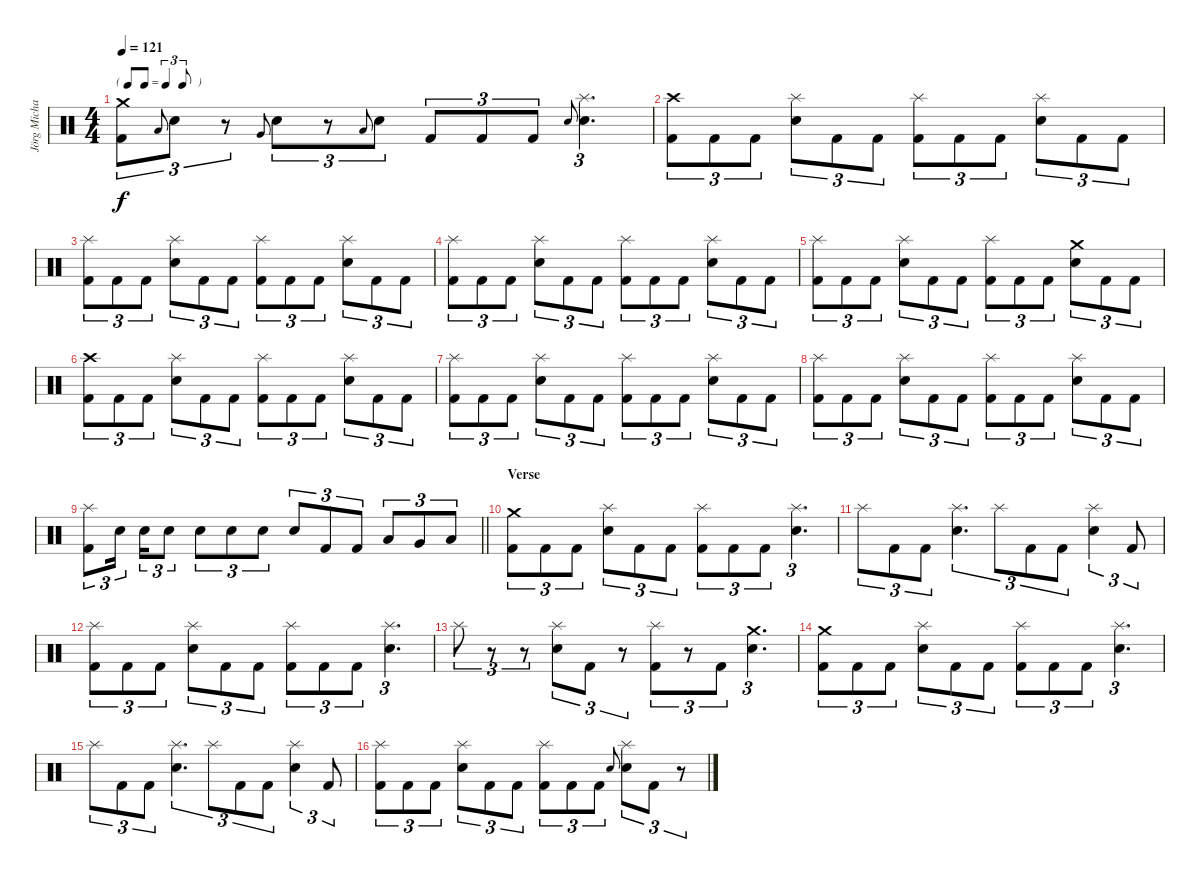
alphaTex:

\track ("Jörg Michael" "Jörg Micha") {instrument percussion}
\staff {score}
\articulation defaults
\ts (4 4)
\tf triplet8th
\tempo 121
\clef neutral
\ks c
("Crash medium (hit)" "Kick (hit) 2").8{tu (3 2) dy f} "Low Tom (hit)".8{gr onbeat} "Snare (hit) 2".8{tu (3 2)} r.8{tu (3 2)} "Very Low Tom (hit)".8{gr onbeat} "Snare (hit) 2".8{tu (3 2)} r.8{tu (3 2)} "Low Floor Tom (hit)".8{gr onbeat} "Snare (hit) 2".8{tu (3 2)} "Kick (hit) 2".8{tu (3 2)} "Kick (hit) 2".8{tu (3 2)} "Kick (hit) 2".8{tu (3 2)} "Snare (hit) 2".8{gr onbeat} ("Splash (hit)" "Snare (hit) 2").4{d tu (3 2)} |
("Crash high (hit)" "Kick (hit) 2").8{tu (3 2)} "Kick (hit) 2".8{tu (3 2)} "Kick (hit) 2".8{tu (3 2)} ("Splash (hit)" "Snare (hit) 2").8{tu (3 2)} "Kick (hit) 2".8{tu (3 2)} "Kick (hit) 2".8{tu (3 2)} ("Splash (hit)" "Kick (hit) 2").8{tu (3 2)} "Kick (hit) 2".8{tu (3 2)} "Kick (hit) 2".8{tu (3 2)} ("Splash (hit)" "Snare (hit) 2").8{tu (3 2)} "Kick (hit) 2".8{tu (3 2)} "Kick (hit) 2".8{tu (3 2)} |
("Splash (hit)" "Kick (hit) 2").8{tu (3 2)} "Kick (hit) 2".8{tu (3 2)} "Kick (hit) 2".8{tu (3 2)} ("Splash (hit)" "Snare (hit) 2").8{tu (3 2)} "Kick (hit) 2".8{tu (3 2)} "Kick (hit) 2".8{tu (3 2)} ("Splash (hit)" "Kick (hit) 2").8{tu (3 2)} "Kick (hit) 2".8{tu (3 2)} "Kick (hit) 2".8{tu (3 2)} ("Splash (hit)" "Snare (hit) 2").8{tu (3 2)} "Kick (hit) 2".8{tu (3 2)} "Kick (hit) 2".8{tu (3 2)} |
("Splash (hit)" "Kick (hit) 2").8{tu (3 2)} "Kick (hit) 2".8{tu (3 2)} "Kick (hit) 2".8{tu (3 2)} ("Splash (hit)" "Snare (hit) 2").8{tu (3 2)} "Kick (hit) 2".8{tu (3 2)} "Kick (hit) 2".8{tu (3 2)} ("Splash (hit)" "Kick (hit) 2").8{tu (3 2)} "Kick (hit) 2".8{tu (3 2)} "Kick (hit) 2".8{tu (3 2)} ("Splash (hit)" "Snare (hit) 2").8{tu (3 2)} "Kick (hit) 2".8{tu (3 2)} "Kick (hit) 2".8{tu (3 2)} |
("Splash (hit)" "Kick (hit) 2").8{tu (3 2)} "Kick (hit) 2".8{tu (3 2)} "Kick (hit) 2".8{tu (3 2)} ("Splash (hit)" "Snare (hit) 2").8{tu (3 2)} "Kick (hit) 2".8{tu (3 2)} "Kick (hit) 2".8{tu (3 2)} ("Splash (hit)" "Kick (hit) 2").8{tu (3 2)} "Kick (hit) 2".8{tu (3 2)} "Kick (hit) 2".8{tu (3 2)} ("Crash medium (hit)" "Snare (hit) 2").8{tu (3 2)} "Kick (hit) 2".8{tu (3 2)} "Kick (hit) 2".8{tu (3 2)} |
("Crash high (hit)" "Kick (hit) 2").8{tu (3 2)} "Kick (hit) 2".8{tu (3 2)} "Kick (hit) 2".8{tu (3 2)} ("Splash (hit)" "Snare (hit) 2").8{tu (3 2)} "Kick (hit) 2".8{tu (3 2)} "Kick (hit) 2".8{tu (3 2)} ("Splash (hit)" "Kick (hit) 2").8{tu (3 2)} "Kick (hit) 2".8{tu (3 2)} "Kick (hit) 2".8{tu (3 2)} ("Splash (hit)" "Snare (hit) 2").8{tu (3 2)} "Kick (hit) 2".8{tu (3 2)} "Kick (hit) 2".8{tu (3 2)} |
("Splash (hit)" "Kick (hit) 2").8{tu (3 2)} "Kick (hit) 2".8{tu (3 2)} "Kick (hit) 2".8{tu (3 2)} ("Splash (hit)" "Snare (hit) 2").8{tu (3 2)} "Kick (hit) 2".8{tu (3 2)} "Kick (hit) 2".8{tu (3 2)} ("Splash (hit)" "Kick (hit) 2").8{tu (3 2)} "Kick (hit) 2".8{tu (3 2)} "Kick (hit) 2".8{tu (3 2)} ("Splash (hit)" "Snare (hit) 2").8{tu (3 2)} "Kick (hit) 2".8{tu (3 2)} "Kick (hit) 2".8{tu (3 2)} |
("Splash (hit)" "Kick (hit) 2").8{tu (3 2)} "Kick (hit) 2".8{tu (3 2)} "Kick (hit) 2".8{tu (3 2)} ("Splash (hit)" "Snare (hit) 2").8{tu (3 2)} "Kick (hit) 2".8{tu (3 2)} "Kick (hit) 2".8{tu (3 2)} ("Splash (hit)" "Kick (hit) 2").8{tu (3 2)} "Kick (hit) 2".8{tu (3 2)} "Kick (hit) 2".8{tu (3 2)} ("Splash (hit)" "Snare (hit) 2").8{tu (3 2)} "Kick (hit) 2".8{tu (3 2)} "Kick (hit) 2".8{tu (3 2)} |
\barLineRight lightlight
("Splash (hit)" "Kick (hit) 2").8{tu (3 2)} "Snare (hit) 2".16{tu (3 2) beam splitsecondary} "Snare (hit) 2".16{tu (3 2)} "Snare (hit) 2".8{tu (3 2)} "Snare (hit) 2".8{tu (3 2)} "Snare (hit) 2".8{tu (3 2)} "Snare (hit) 2".8{tu (3 2)} "Snare (hit) 2".8{tu (3 2)} "Kick (hit) 2".8{tu (3 2)} "Kick (hit) 2".8{tu (3 2)} "Low Tom (hit)".8{tu (3 2)} "Very Low Tom (hit)".8{tu (3 2)} "Low Floor Tom (hit)".8{tu (3 2)} |
\section ("" "Verse")
("Crash medium (hit)" "Kick (hit) 2").8{tu (3 2)} "Kick (hit) 2".8{tu (3 2)} "Kick (hit) 2".8{tu (3 2)} ("Splash (hit)" "Snare (hit) 2").8{tu (3 2)} "Kick (hit) 2".8{tu (3 2)} "Kick (hit) 2".8{tu (3 2)} ("Splash (hit)" "Kick (hit) 2").8{tu (3 2)} "Kick (hit) 2".8{tu (3 2)} "Kick (hit) 2".8{tu (3 2)} ("Splash (hit)" "Snare (hit) 2").4{d tu (3 2)} |
"Splash (hit)".8{tu (3 2)} "Kick (hit) 2".8{tu (3 2)} "Kick (hit) 2".8{tu (3 2)} ("Splash (hit)" "Snare (hit) 2").4{d tu (3 2)} "Splash (hit)".8{tu (3 2)} "Kick (hit) 2".8{tu (3 2)} "Kick (hit) 2".8{tu (3 2)} ("Splash (hit)" "Snare (hit) 2").4{tu (3 2)} "Kick (hit) 2".8{tu (3 2)} |
("Splash (hit)" "Kick (hit) 2").8{tu (3 2)} "Kick (hit) 2".8{tu (3 2)} "Kick (hit) 2".8{tu (3 2)} ("Splash (hit)" "Snare (hit) 2").8{tu (3 2)} "Kick (hit) 2".8{tu (3 2)} "Kick (hit) 2".8{tu (3 2)} ("Splash (hit)" "Kick (hit) 2").8{tu (3 2)} "Kick (hit) 2".8{tu (3 2)} "Kick (hit) 2".8{tu (3 2)} ("Splash (hit)" "Snare (hit) 2").4{d tu (3 2)} |
"Splash (hit)".8{tu (3 2)} r.8{tu (3 2)} r.8{tu (3 2)} ("Splash (hit)" "Snare (hit) 2").8{tu (3 2)} "Kick (hit) 2".8{tu (3 2)} r.8{tu (3 2)} ("Splash (hit)" "Kick (hit) 2").8{tu (3 2)} r.8{tu (3 2)} "Kick (hit) 2".8{tu (3 2)} ("Crash medium (hit)" "Snare (hit) 2").4{d tu (3 2)} |
("Crash medium (hit)" "Kick (hit) 2").8{tu (3 2)} "Kick (hit) 2".8{tu (3 2)} "Kick (hit) 2".8{tu (3 2)} ("Splash (hit)" "Snare (hit) 2").8{tu (3 2)} "Kick (hit) 2".8{tu (3 2)} "Kick (hit) 2".8{tu (3 2)} ("Splash (hit)" "Kick (hit) 2").8{tu (3 2)} "Kick (hit) 2".8{tu (3 2)} "Kick (hit) 2".8{tu (3 2)} ("Splash (hit)" "Snare (hit) 2").4{d tu (3 2)} |
"Splash (hit)".8{tu (3 2)} "Kick (hit) 2".8{tu (3 2)} "Kick (hit) 2".8{tu (3 2)} ("Splash (hit)" "Snare (hit) 2").4{d tu (3 2)} "Splash (hit)".8{tu (3 2)} "Kick (hit) 2".8{tu (3 2)} "Kick (hit) 2".8{tu (3 2)} ("Splash (hit)" "Snare (hit) 2").4{tu (3 2)} "Kick (hit) 2".8{tu (3 2)} |
("Splash (hit)" "Kick (hit) 2").8{tu (3 2)} "Kick (hit) 2".8{tu (3 2)} "Kick (hit) 2".8{tu (3 2)} ("Splash (hit)" "Snare (hit) 2").8{tu (3 2)} "Kick (hit) 2".8{tu (3 2)} "Kick (hit) 2".8{tu (3 2)} ("Splash (hit)" "Kick (hit) 2").8{tu (3 2)} "Kick (hit) 2".8{tu (3 2)} "Kick (hit) 2".8{tu (3 2)} "Snare (hit) 2".8{gr onbeat} ("Splash (hit)" "Snare (hit) 2").8{tu (3 2)} "Kick (hit) 2".8{tu (3 2)} r.8{tu (3 2)}
